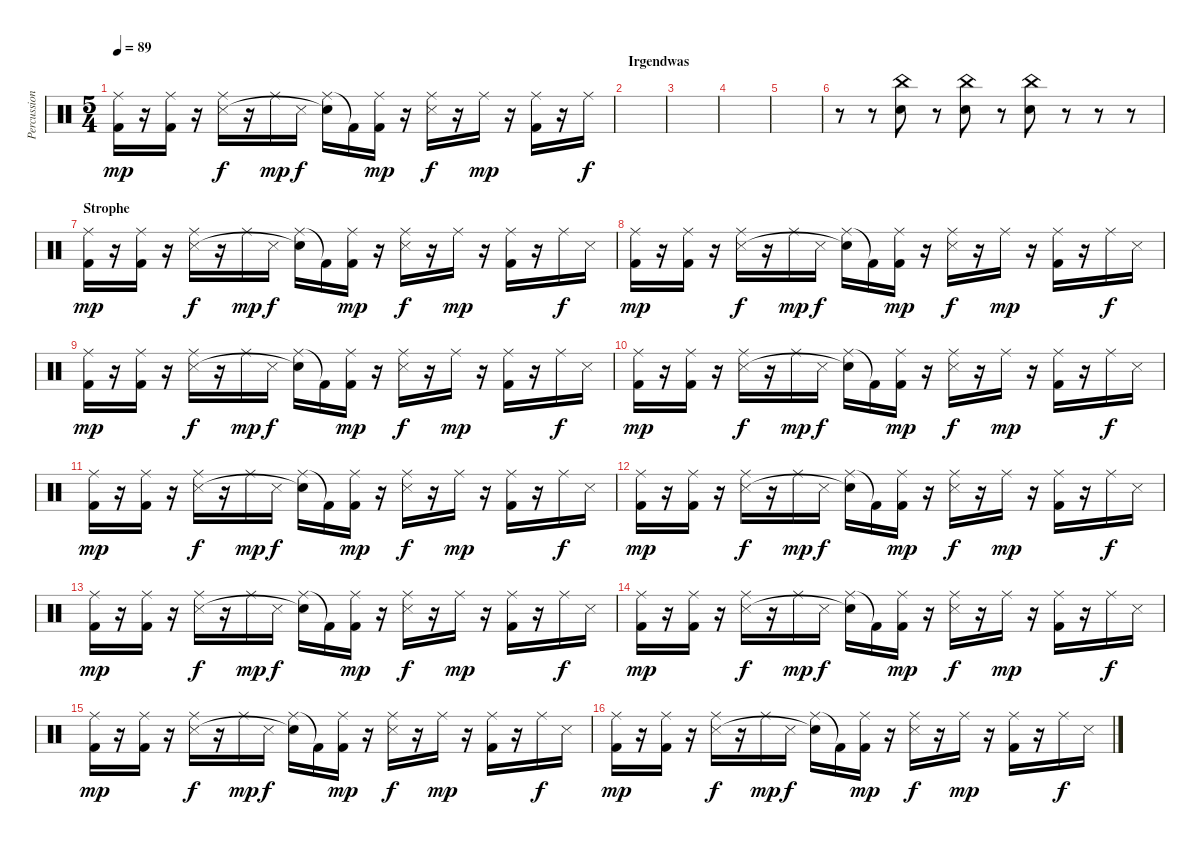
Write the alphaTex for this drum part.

\track ("Percussion" "Percussion") {instrument percussion}
\staff {score}
\articulation defaults
\ts (5 4)
\tempo 89
\clef neutral
\ks c
("Ride (middle)" "Kick (hit) 2").16{dy mp} r.16 ("Ride (middle)" "Kick (hit) 2").16 r.16 ("Ride (middle)" "Snare (side stick) 3").16{dy f} r.16 "Ride (middle)".16{dy mp} "Snare (side stick) 3".16{dy f} ("Ride (middle)" "Snare (hit)"{t}).16 "Kick (hit) 2"{t}.16 ("Ride (middle)" "Kick (hit) 2").16{dy mp} r.16 ("Ride (middle)" "Snare (side stick) 3").16{dy f} r.16 "Ride (middle)".16{dy mp} r.16 ("Ride (middle)" "Kick (hit) 2").16 r.16 "Ride (middle)".16{dy f} |
\section ("" "Irgendwas")
|
|
|
|
r.8 r.8 ("China (hit)" "Snare (hit) 2").8 r.8 ("China (hit)" "Snare (hit) 2").8 r.8 ("China (hit)" "Snare (hit) 2").8 r.8 r.8 r.8 |
\section ("" "Strophe")
("Ride (middle)" "Kick (hit) 2").16{dy mp} r.16 ("Ride (middle)" "Kick (hit) 2").16 r.16 ("Ride (middle)" "Snare (side stick) 3").16{dy f} r.16 "Ride (middle)".16{dy mp} "Snare (side stick) 3".16{dy f} ("Ride (middle)" "Snare (hit)"{t}).16 "Kick (hit) 2"{t}.16 ("Ride (middle)" "Kick (hit) 2").16{dy mp} r.16 ("Ride (middle)" "Snare (side stick) 3").16{dy f} r.16 "Ride (middle)".16{dy mp} r.16 ("Ride (middle)" "Kick (hit) 2").16 r.16 "Ride (middle)".16{dy f} "Snare (side stick) 3".16 |
("Ride (middle)" "Kick (hit) 2").16{dy mp} r.16 ("Ride (middle)" "Kick (hit) 2").16 r.16 ("Ride (middle)" "Snare (side stick) 3").16{dy f} r.16 "Ride (middle)".16{dy mp} "Snare (side stick) 3".16{dy f} ("Ride (middle)" "Snare (hit)"{t}).16 "Kick (hit) 2"{t}.16 ("Ride (middle)" "Kick (hit) 2").16{dy mp} r.16 ("Ride (middle)" "Snare (side stick) 3").16{dy f} r.16 "Ride (middle)".16{dy mp} r.16 ("Ride (middle)" "Kick (hit) 2").16 r.16 "Ride (middle)".16{dy f} "Snare (side stick) 3".16 |
("Ride (middle)" "Kick (hit) 2").16{dy mp} r.16 ("Ride (middle)" "Kick (hit) 2").16 r.16 ("Ride (middle)" "Snare (side stick) 3").16{dy f} r.16 "Ride (middle)".16{dy mp} "Snare (side stick) 3".16{dy f} ("Ride (middle)" "Snare (hit)"{t}).16 "Kick (hit) 2"{t}.16 ("Ride (middle)" "Kick (hit) 2").16{dy mp} r.16 ("Ride (middle)" "Snare (side stick) 3").16{dy f} r.16 "Ride (middle)".16{dy mp} r.16 ("Ride (middle)" "Kick (hit) 2").16 r.16 "Ride (middle)".16{dy f} "Snare (side stick) 3".16 |
("Ride (middle)" "Kick (hit) 2").16{dy mp} r.16 ("Ride (middle)" "Kick (hit) 2").16 r.16 ("Ride (middle)" "Snare (side stick) 3").16{dy f} r.16 "Ride (middle)".16{dy mp} "Snare (side stick) 3".16{dy f} ("Ride (middle)" "Snare (hit)"{t}).16 "Kick (hit) 2"{t}.16 ("Ride (middle)" "Kick (hit) 2").16{dy mp} r.16 ("Ride (middle)" "Snare (side stick) 3").16{dy f} r.16 "Ride (middle)".16{dy mp} r.16 ("Ride (middle)" "Kick (hit) 2").16 r.16 "Ride (middle)".16{dy f} "Snare (side stick) 3".16 |
("Ride (middle)" "Kick (hit) 2").16{dy mp} r.16 ("Ride (middle)" "Kick (hit) 2").16 r.16 ("Ride (middle)" "Snare (side stick) 3").16{dy f} r.16 "Ride (middle)".16{dy mp} "Snare (side stick) 3".16{dy f} ("Ride (middle)" "Snare (hit)"{t}).16 "Kick (hit) 2"{t}.16 ("Ride (middle)" "Kick (hit) 2").16{dy mp} r.16 ("Ride (middle)" "Snare (side stick) 3").16{dy f} r.16 "Ride (middle)".16{dy mp} r.16 ("Ride (middle)" "Kick (hit) 2").16 r.16 "Ride (middle)".16{dy f} "Snare (side stick) 3".16 |
("Ride (middle)" "Kick (hit) 2").16{dy mp} r.16 ("Ride (middle)" "Kick (hit) 2").16 r.16 ("Ride (middle)" "Snare (side stick) 3").16{dy f} r.16 "Ride (middle)".16{dy mp} "Snare (side stick) 3".16{dy f} ("Ride (middle)" "Snare (hit)"{t}).16 "Kick (hit) 2"{t}.16 ("Ride (middle)" "Kick (hit) 2").16{dy mp} r.16 ("Ride (middle)" "Snare (side stick) 3").16{dy f} r.16 "Ride (middle)".16{dy mp} r.16 ("Ride (middle)" "Kick (hit) 2").16 r.16 "Ride (middle)".16{dy f} "Snare (side stick) 3".16 |
("Ride (middle)" "Kick (hit) 2").16{dy mp} r.16 ("Ride (middle)" "Kick (hit) 2").16 r.16 ("Ride (middle)" "Snare (side stick) 3").16{dy f} r.16 "Ride (middle)".16{dy mp} "Snare (side stick) 3".16{dy f} ("Ride (middle)" "Snare (hit)"{t}).16 "Kick (hit) 2"{t}.16 ("Ride (middle)" "Kick (hit) 2").16{dy mp} r.16 ("Ride (middle)" "Snare (side stick) 3").16{dy f} r.16 "Ride (middle)".16{dy mp} r.16 ("Ride (middle)" "Kick (hit) 2").16 r.16 "Ride (middle)".16{dy f} "Snare (side stick) 3".16 |
("Ride (middle)" "Kick (hit) 2").16{dy mp} r.16 ("Ride (middle)" "Kick (hit) 2").16 r.16 ("Ride (middle)" "Snare (side stick) 3").16{dy f} r.16 "Ride (middle)".16{dy mp} "Snare (side stick) 3".16{dy f} ("Ride (middle)" "Snare (hit)"{t}).16 "Kick (hit) 2"{t}.16 ("Ride (middle)" "Kick (hit) 2").16{dy mp} r.16 ("Ride (middle)" "Snare (side stick) 3").16{dy f} r.16 "Ride (middle)".16{dy mp} r.16 ("Ride (middle)" "Kick (hit) 2").16 r.16 "Ride (middle)".16{dy f} "Snare (side stick) 3".16 |
("Ride (middle)" "Kick (hit) 2").16{dy mp} r.16 ("Ride (middle)" "Kick (hit) 2").16 r.16 ("Ride (middle)" "Snare (side stick) 3").16{dy f} r.16 "Ride (middle)".16{dy mp} "Snare (side stick) 3".16{dy f} ("Ride (middle)" "Snare (hit)"{t}).16 "Kick (hit) 2"{t}.16 ("Ride (middle)" "Kick (hit) 2").16{dy mp} r.16 ("Ride (middle)" "Snare (side stick) 3").16{dy f} r.16 "Ride (middle)".16{dy mp} r.16 ("Ride (middle)" "Kick (hit) 2").16 r.16 "Ride (middle)".16{dy f} "Snare (side stick) 3".16 |
("Ride (middle)" "Kick (hit) 2").16{dy mp} r.16 ("Ride (middle)" "Kick (hit) 2").16 r.16 ("Ride (middle)" "Snare (side stick) 3").16{dy f} r.16 "Ride (middle)".16{dy mp} "Snare (side stick) 3".16{dy f} ("Ride (middle)" "Snare (hit)"{t}).16 "Kick (hit) 2"{t}.16 ("Ride (middle)" "Kick (hit) 2").16{dy mp} r.16 ("Ride (middle)" "Snare (side stick) 3").16{dy f} r.16 "Ride (middle)".16{dy mp} r.16 ("Ride (middle)" "Kick (hit) 2").16 r.16 "Ride (middle)".16{dy f} "Snare (side stick) 3".16
